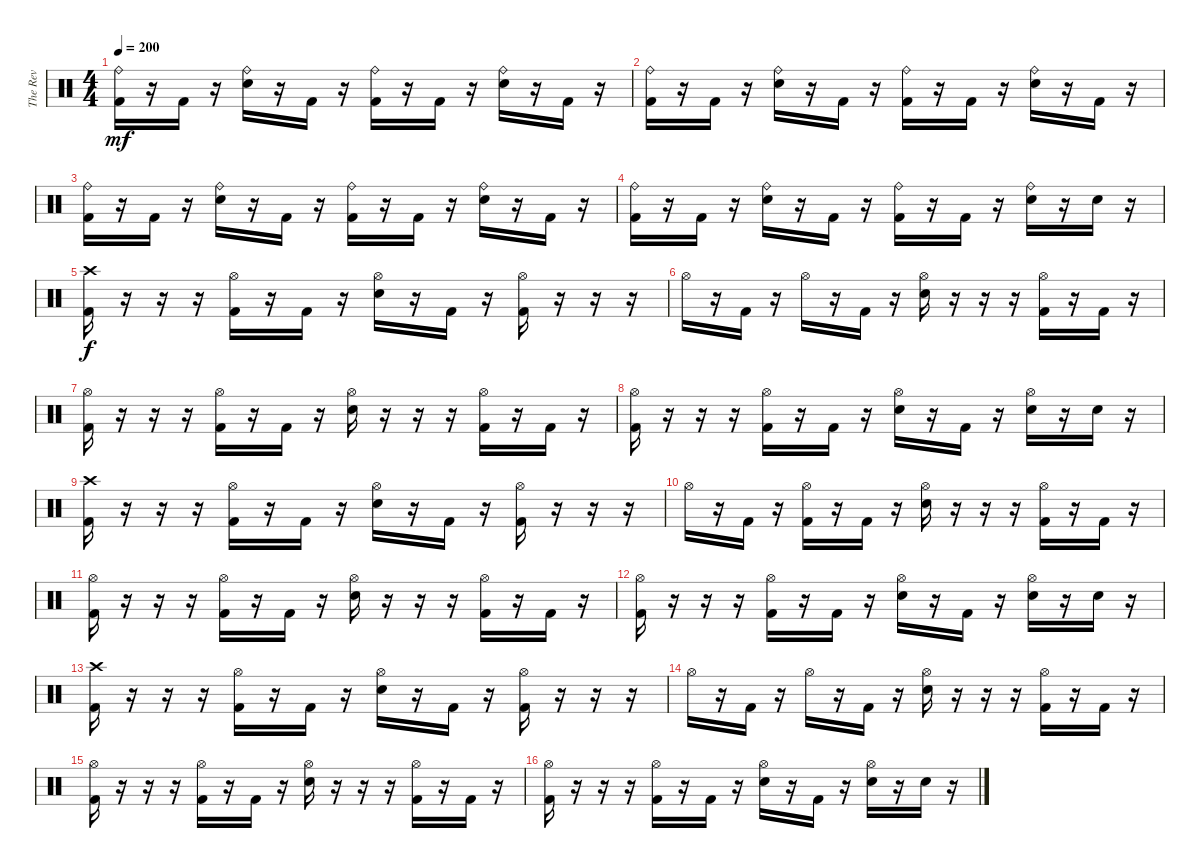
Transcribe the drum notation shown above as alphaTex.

\track ("The Rev" "The Rev") {instrument percussion}
\staff {score}
\articulation defaults
\ts (4 4)
\tempo 200
\clef neutral
\ks c
("Ride (bell)" "Kick (hit) 2").16{dy mf} r.16 "Kick (hit) 2".16 r.16 ("Ride (bell)" "Electric Snare (hit)").16 r.16 "Kick (hit) 2".16 r.16 ("Ride (bell)" "Kick (hit) 2").16 r.16 "Kick (hit) 2".16 r.16 ("Ride (bell)" "Electric Snare (hit)").16 r.16 "Kick (hit) 2".16 r.16 |
("Ride (bell)" "Kick (hit) 2").16 r.16 "Kick (hit) 2".16 r.16 ("Ride (bell)" "Electric Snare (hit)").16 r.16 "Kick (hit) 2".16 r.16 ("Ride (bell)" "Kick (hit) 2").16 r.16 "Kick (hit) 2".16 r.16 ("Ride (bell)" "Electric Snare (hit)").16 r.16 "Kick (hit) 2".16 r.16 |
("Ride (bell)" "Kick (hit) 2").16 r.16 "Kick (hit) 2".16 r.16 ("Ride (bell)" "Electric Snare (hit)").16 r.16 "Kick (hit) 2".16 r.16 ("Ride (bell)" "Kick (hit) 2").16 r.16 "Kick (hit) 2".16 r.16 ("Ride (bell)" "Electric Snare (hit)").16 r.16 "Kick (hit) 2".16 r.16 |
("Ride (bell)" "Kick (hit) 2").16 r.16 "Kick (hit) 2".16 r.16 ("Ride (bell)" "Electric Snare (hit)").16 r.16 "Kick (hit) 2".16 r.16 ("Ride (bell)" "Kick (hit) 2").16 r.16 "Kick (hit) 2".16 r.16 ("Ride (bell)" "Electric Snare (hit)").16 r.16 "Electric Snare (hit)".16 r.16 |
("Crash high (hit)" "Kick (hit) 2").16{dy f} r.16 r.16 r.16 ("Hi-Hat (open)" "Kick (hit) 2").16 r.16 "Kick (hit) 2".16 r.16 ("Hi-Hat (open)" "Electric Snare (hit)").16 r.16 "Kick (hit) 2".16 r.16 ("Hi-Hat (open)" "Kick (hit) 2").16 r.16 r.16 r.16 |
"Hi-Hat (open)".16 r.16 "Kick (hit) 2".16 r.16 "Hi-Hat (open)".16 r.16 "Kick (hit) 2".16 r.16 ("Hi-Hat (open)" "Electric Snare (hit)").16 r.16 r.16 r.16 ("Hi-Hat (open)" "Kick (hit) 2").16 r.16 "Kick (hit) 2".16 r.16 |
("Hi-Hat (open)" "Kick (hit) 2").16 r.16 r.16 r.16 ("Hi-Hat (open)" "Kick (hit) 2").16 r.16 "Kick (hit) 2".16 r.16 ("Hi-Hat (open)" "Electric Snare (hit)").16 r.16 r.16 r.16 ("Hi-Hat (open)" "Kick (hit) 2").16 r.16 "Kick (hit) 2".16 r.16 |
("Hi-Hat (open)" "Kick (hit) 2").16 r.16 r.16 r.16 ("Hi-Hat (open)" "Kick (hit) 2").16 r.16 "Kick (hit) 2".16 r.16 ("Hi-Hat (open)" "Electric Snare (hit)").16 r.16 "Kick (hit) 2".16 r.16 ("Hi-Hat (open)" "Electric Snare (hit)").16 r.16 "Electric Snare (hit)".16 r.16 |
("Crash high (hit)" "Kick (hit) 2").16 r.16 r.16 r.16 ("Hi-Hat (open)" "Kick (hit) 2").16 r.16 "Kick (hit) 2".16 r.16 ("Hi-Hat (open)" "Electric Snare (hit)").16 r.16 "Kick (hit) 2".16 r.16 ("Hi-Hat (open)" "Kick (hit) 2").16 r.16 r.16 r.16 |
"Hi-Hat (open)".16 r.16 "Kick (hit) 2".16 r.16 ("Hi-Hat (open)" "Kick (hit) 2").16 r.16 "Kick (hit) 2".16 r.16 ("Hi-Hat (open)" "Electric Snare (hit)").16 r.16 r.16 r.16 ("Hi-Hat (open)" "Kick (hit) 2").16 r.16 "Kick (hit) 2".16 r.16 |
("Hi-Hat (open)" "Kick (hit) 2").16 r.16 r.16 r.16 ("Hi-Hat (open)" "Kick (hit) 2").16 r.16 "Kick (hit) 2".16 r.16 ("Hi-Hat (open)" "Electric Snare (hit)").16 r.16 r.16 r.16 ("Hi-Hat (open)" "Kick (hit) 2").16 r.16 "Kick (hit) 2".16 r.16 |
("Hi-Hat (open)" "Kick (hit) 2").16 r.16 r.16 r.16 ("Hi-Hat (open)" "Kick (hit) 2").16 r.16 "Kick (hit) 2".16 r.16 ("Hi-Hat (open)" "Electric Snare (hit)").16 r.16 "Kick (hit) 2".16 r.16 ("Hi-Hat (open)" "Electric Snare (hit)").16 r.16 "Electric Snare (hit)".16 r.16 |
("Crash high (hit)" "Kick (hit) 2").16 r.16 r.16 r.16 ("Hi-Hat (open)" "Kick (hit) 2").16 r.16 "Kick (hit) 2".16 r.16 ("Hi-Hat (open)" "Electric Snare (hit)").16 r.16 "Kick (hit) 2".16 r.16 ("Hi-Hat (open)" "Kick (hit) 2").16 r.16 r.16 r.16 |
"Hi-Hat (open)".16 r.16 "Kick (hit) 2".16 r.16 "Hi-Hat (open)".16 r.16 "Kick (hit) 2".16 r.16 ("Hi-Hat (open)" "Electric Snare (hit)").16 r.16 r.16 r.16 ("Hi-Hat (open)" "Kick (hit) 2").16 r.16 "Kick (hit) 2".16 r.16 |
("Hi-Hat (open)" "Kick (hit) 2").16 r.16 r.16 r.16 ("Hi-Hat (open)" "Kick (hit) 2").16 r.16 "Kick (hit) 2".16 r.16 ("Hi-Hat (open)" "Electric Snare (hit)").16 r.16 r.16 r.16 ("Hi-Hat (open)" "Kick (hit) 2").16 r.16 "Kick (hit) 2".16 r.16 |
("Hi-Hat (open)" "Kick (hit) 2").16 r.16 r.16 r.16 ("Hi-Hat (open)" "Kick (hit) 2").16 r.16 "Kick (hit) 2".16 r.16 ("Hi-Hat (open)" "Electric Snare (hit)").16 r.16 "Kick (hit) 2".16 r.16 ("Hi-Hat (open)" "Electric Snare (hit)").16 r.16 "Electric Snare (hit)".16 r.16
